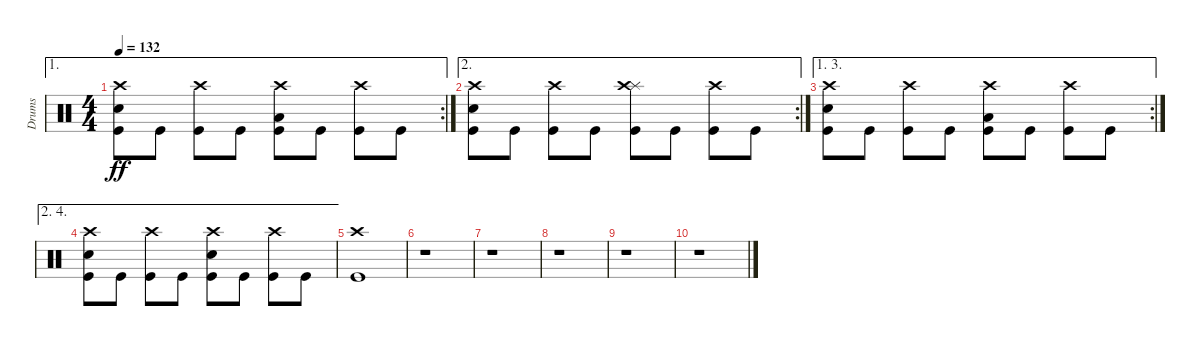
\track ("Drums" "Drums") {instrument percussion}
\staff {score}
\articulation defaults
\ae 1
\rc 2
\ts (4 4)
\tempo 132
\clef neutral
\ks c
("Crash high (hit)" "Electric Snare (hit)" "Kick (hit)").8{dy ff} "Kick (hit)".8 ("Crash high (hit)" "Kick (hit)").8 "Kick (hit)".8 ("Crash high (hit)" "Low Floor Tom (hit)" "Kick (hit)").8 "Kick (hit)".8 ("Crash high (hit)" "Kick (hit)").8 "Kick (hit)".8 |
\ae 2
\rc 2
("Crash high (hit)" "Electric Snare (hit)" "Kick (hit)").8 "Kick (hit)".8 ("Crash high (hit)" "Kick (hit)").8 "Kick (hit)".8 ("Splash (hit)" "Crash high (hit)" "Kick (hit)").8 "Kick (hit)".8 ("Crash high (hit)" "Kick (hit)").8 "Kick (hit)".8 |
\ae (1 3)
\rc 2
("Crash high (hit)" "Electric Snare (hit)" "Kick (hit)").8 "Kick (hit)".8 ("Crash high (hit)" "Kick (hit)").8 "Kick (hit)".8 ("Crash high (hit)" "Low Floor Tom (hit)" "Kick (hit)").8 "Kick (hit)".8 ("Crash high (hit)" "Kick (hit)").8 "Kick (hit)".8 |
\ae (2 4)
("Crash high (hit)" "Electric Snare (hit)" "Kick (hit)").8 "Kick (hit)".8 ("Crash high (hit)" "Kick (hit)").8 "Kick (hit)".8 ("Crash high (hit)" "Electric Snare (hit)" "Kick (hit)").8 "Kick (hit)".8 ("Crash high (hit)" "Kick (hit)").8 "Kick (hit)".8 |
("Crash high (hit)" "Kick (hit)").1 |
r.1 |
r.1 |
r.1 |
r.1 |
r.1
